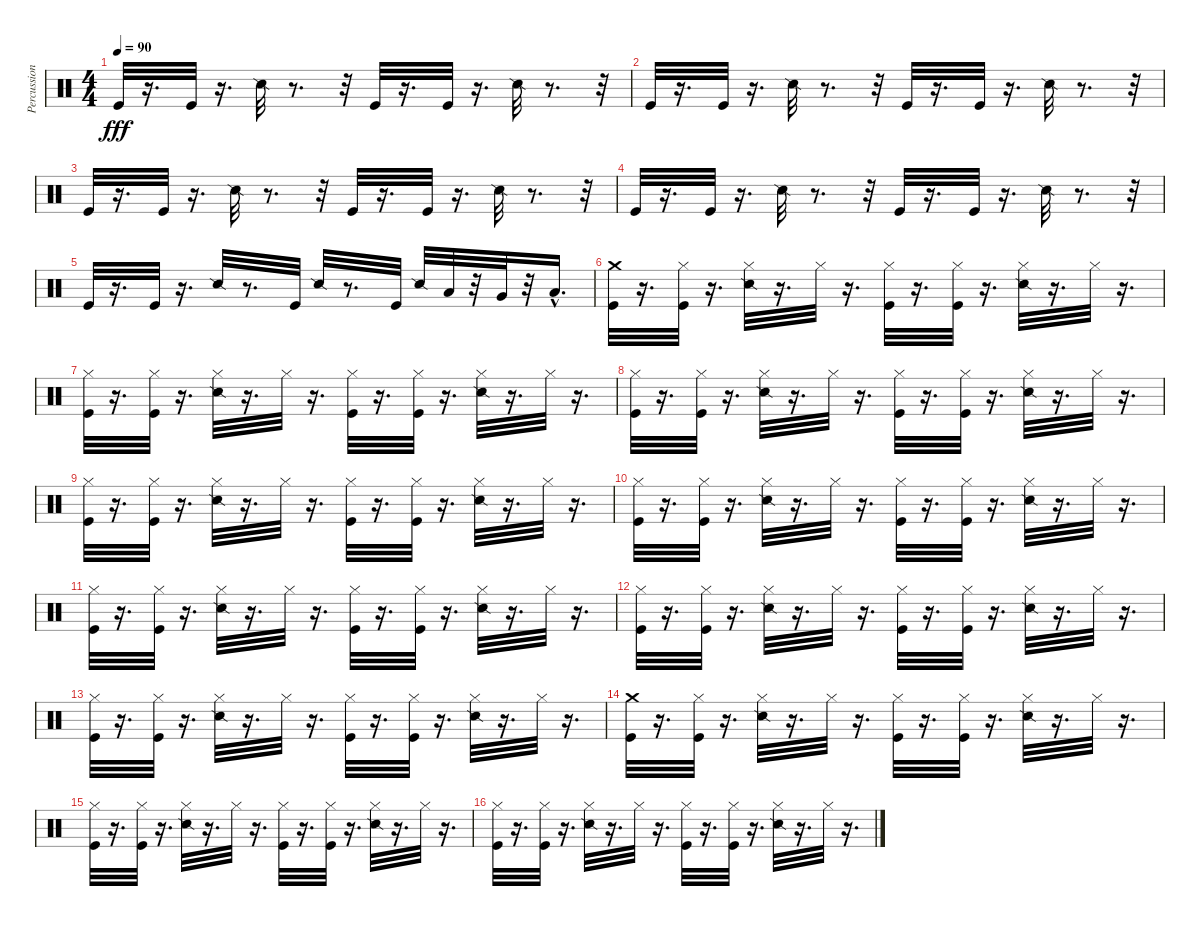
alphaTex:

\track ("Percussion" "Percussion") {instrument percussion}
\staff {score}
\articulation defaults
\ts (4 4)
\tempo 90
\clef neutral
\ks c "Kick (hit)".32{dy fff}
r.16{d} "Kick (hit)".32 r.16{d} "Snare (side stick) 2".32 r.8{d} r.32 "Kick (hit)".32 r.16{d} "Kick (hit)".32 r.16{d} "Snare (side stick) 2".32 r.8{d} r.32 |
"Kick (hit)".32 r.16{d} "Kick (hit)".32 r.16{d} "Snare (side stick) 2".32 r.8{d} r.32 "Kick (hit)".32 r.16{d} "Kick (hit)".32 r.16{d} "Snare (side stick) 2".32 r.8{d} r.32 |
"Kick (hit)".32 r.16{d} "Kick (hit)".32 r.16{d} "Snare (side stick) 2".32 r.8{d} r.32 "Kick (hit)".32 r.16{d} "Kick (hit)".32 r.16{d} "Snare (side stick) 2".32 r.8{d} r.32 |
"Kick (hit)".32 r.16{d} "Kick (hit)".32 r.16{d} "Snare (side stick) 2".32 r.8{d} r.32 "Kick (hit)".32 r.16{d} "Kick (hit)".32 r.16{d} "Snare (side stick) 2".32 r.8{d} r.32 |
"Kick (hit)".32 r.16{d} "Kick (hit)".32 r.16{d} "Snare (side stick) 2".32 r.8{d} "Kick (hit)".32 "Snare (side stick) 2".32 r.8{d} "Kick (hit)".32 "Snare (side stick) 2".32 "Low Tom (hit)".32 r.32 "Very Low Tom (hit)".32 r.32 "Low Floor Tom (hit)"{hac}.16{d} |
("Kick (hit)" "Crash medium (hit)").32 r.16{d} ("Kick (hit)" "Hi-Hat (closed)").32 r.16{d} ("Snare (side stick) 2" "Hi-Hat (closed)").32 r.16{d} "Hi-Hat (closed)".32 r.16{d} ("Kick (hit)" "Hi-Hat (closed)").32 r.16{d} ("Kick (hit)" "Hi-Hat (closed)").32 r.16{d} ("Snare (side stick) 2" "Hi-Hat (closed)").32 r.16{d} "Hi-Hat (closed)".32 r.16{d} |
("Kick (hit)" "Hi-Hat (closed)").32 r.16{d} ("Kick (hit)" "Hi-Hat (closed)").32 r.16{d} ("Snare (side stick) 2" "Hi-Hat (closed)").32 r.16{d} "Hi-Hat (closed)".32 r.16{d} ("Kick (hit)" "Hi-Hat (closed)").32 r.16{d} ("Kick (hit)" "Hi-Hat (closed)").32 r.16{d} ("Snare (side stick) 2" "Hi-Hat (closed)").32 r.16{d} "Hi-Hat (closed)".32 r.16{d} |
("Kick (hit)" "Hi-Hat (closed)").32 r.16{d} ("Kick (hit)" "Hi-Hat (closed)").32 r.16{d} ("Snare (side stick) 2" "Hi-Hat (closed)").32 r.16{d} "Hi-Hat (closed)".32 r.16{d} ("Kick (hit)" "Hi-Hat (closed)").32 r.16{d} ("Kick (hit)" "Hi-Hat (closed)").32 r.16{d} ("Snare (side stick) 2" "Hi-Hat (closed)").32 r.16{d} "Hi-Hat (closed)".32 r.16{d} |
("Kick (hit)" "Hi-Hat (closed)").32 r.16{d} ("Kick (hit)" "Hi-Hat (closed)").32 r.16{d} ("Snare (side stick) 2" "Hi-Hat (closed)").32 r.16{d} "Hi-Hat (closed)".32 r.16{d} ("Kick (hit)" "Hi-Hat (closed)").32 r.16{d} ("Kick (hit)" "Hi-Hat (closed)").32 r.16{d} ("Snare (side stick) 2" "Hi-Hat (closed)").32 r.16{d} "Hi-Hat (closed)".32 r.16{d} |
("Kick (hit)" "Hi-Hat (closed)").32 r.16{d} ("Kick (hit)" "Hi-Hat (closed)").32 r.16{d} ("Snare (side stick) 2" "Hi-Hat (closed)").32 r.16{d} "Hi-Hat (closed)".32 r.16{d} ("Kick (hit)" "Hi-Hat (closed)").32 r.16{d} ("Kick (hit)" "Hi-Hat (closed)").32 r.16{d} ("Snare (side stick) 2" "Hi-Hat (closed)").32 r.16{d} "Hi-Hat (closed)".32 r.16{d} |
("Kick (hit)" "Hi-Hat (closed)").32 r.16{d} ("Kick (hit)" "Hi-Hat (closed)").32 r.16{d} ("Snare (side stick) 2" "Hi-Hat (closed)").32 r.16{d} "Hi-Hat (closed)".32 r.16{d} ("Kick (hit)" "Hi-Hat (closed)").32 r.16{d} ("Kick (hit)" "Hi-Hat (closed)").32 r.16{d} ("Snare (side stick) 2" "Hi-Hat (closed)").32 r.16{d} "Hi-Hat (closed)".32 r.16{d} |
("Kick (hit)" "Hi-Hat (closed)").32 r.16{d} ("Kick (hit)" "Hi-Hat (closed)").32 r.16{d} ("Snare (side stick) 2" "Hi-Hat (closed)").32 r.16{d} "Hi-Hat (closed)".32 r.16{d} ("Kick (hit)" "Hi-Hat (closed)").32 r.16{d} ("Kick (hit)" "Hi-Hat (closed)").32 r.16{d} ("Snare (side stick) 2" "Hi-Hat (closed)").32 r.16{d} "Hi-Hat (closed)".32 r.16{d} |
("Kick (hit)" "Hi-Hat (closed)").32 r.16{d} ("Kick (hit)" "Hi-Hat (closed)").32 r.16{d} ("Snare (side stick) 2" "Hi-Hat (closed)").32 r.16{d} "Hi-Hat (closed)".32 r.16{d} ("Kick (hit)" "Hi-Hat (closed)").32 r.16{d} ("Kick (hit)" "Hi-Hat (closed)").32 r.16{d} ("Snare (side stick) 2" "Hi-Hat (closed)").32 r.16{d} "Hi-Hat (closed)".32 r.16{d} |
("Kick (hit)" "Crash medium (hit)").32 r.16{d} ("Kick (hit)" "Hi-Hat (closed)").32 r.16{d} ("Snare (side stick) 2" "Hi-Hat (closed)").32 r.16{d} "Hi-Hat (closed)".32 r.16{d} ("Kick (hit)" "Hi-Hat (closed)").32 r.16{d} ("Kick (hit)" "Hi-Hat (closed)").32 r.16{d} ("Snare (side stick) 2" "Hi-Hat (closed)").32 r.16{d} "Hi-Hat (closed)".32 r.16{d} |
("Kick (hit)" "Hi-Hat (closed)").32 r.16{d} ("Kick (hit)" "Hi-Hat (closed)").32 r.16{d} ("Snare (side stick) 2" "Hi-Hat (closed)").32 r.16{d} "Hi-Hat (closed)".32 r.16{d} ("Kick (hit)" "Hi-Hat (closed)").32 r.16{d} ("Kick (hit)" "Hi-Hat (closed)").32 r.16{d} ("Snare (side stick) 2" "Hi-Hat (closed)").32 r.16{d} "Hi-Hat (closed)".32 r.16{d} |
("Kick (hit)" "Hi-Hat (closed)").32 r.16{d} ("Kick (hit)" "Hi-Hat (closed)").32 r.16{d} ("Snare (side stick) 2" "Hi-Hat (closed)").32 r.16{d} "Hi-Hat (closed)".32 r.16{d} ("Kick (hit)" "Hi-Hat (closed)").32 r.16{d} ("Kick (hit)" "Hi-Hat (closed)").32 r.16{d} ("Snare (side stick) 2" "Hi-Hat (closed)").32 r.16{d} "Hi-Hat (closed)".32 r.16{d}
